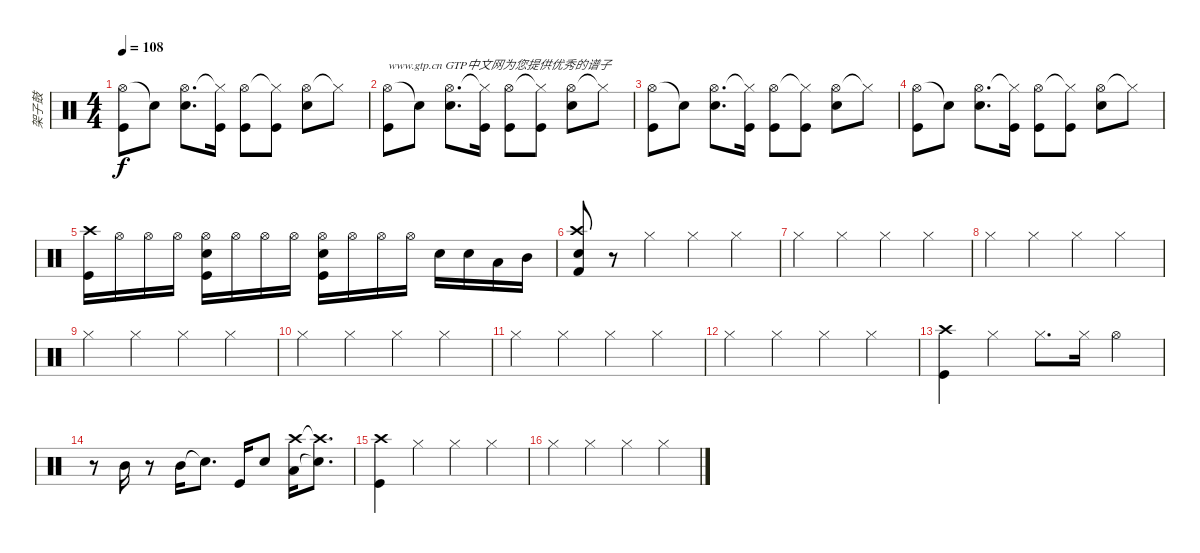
\track ("架子鼓" "架子鼓") {instrument percussion}
\staff {score}
\articulation defaults
\ts (4 4)
\tempo 108
\clef neutral
\ks c
("Hi-Hat (open)" "Kick (hit)").8{dy f} "Snare (hit)"{t}.8 ("Hi-Hat (open)" "Snare (hit) 2").8{d} ("Hi-Hat (closed)"{t} "Kick (hit)").16 ("Hi-Hat (open)" "Kick (hit)").8 ("Hi-Hat (closed)"{t} "Kick (hit)").8 ("Hi-Hat (open)" "Snare (hit) 2").8 "Hi-Hat (closed)"{t}.8 |
("Hi-Hat (open)" "Kick (hit)").8{txt "www.gtp.cn GTP中文网为您提供优秀的谱子"} "Snare (hit)"{t}.8 ("Hi-Hat (open)" "Snare (hit) 2").8{d} ("Hi-Hat (closed)"{t} "Kick (hit)").16 ("Hi-Hat (open)" "Kick (hit)").8 ("Hi-Hat (closed)"{t} "Kick (hit)").8 ("Hi-Hat (open)" "Snare (hit) 2").8 "Hi-Hat (closed)"{t}.8 |
("Hi-Hat (open)" "Kick (hit)").8 "Snare (hit)"{t}.8 ("Hi-Hat (open)" "Snare (hit) 2").8{d} ("Hi-Hat (closed)"{t} "Kick (hit)").16 ("Hi-Hat (open)" "Kick (hit)").8 ("Hi-Hat (closed)"{t} "Kick (hit)").8 ("Hi-Hat (open)" "Snare (hit) 2").8 "Hi-Hat (closed)"{t}.8 |
("Hi-Hat (open)" "Kick (hit)").8 "Snare (hit)"{t}.8 ("Hi-Hat (open)" "Snare (hit) 2").8{d} ("Hi-Hat (closed)"{t} "Kick (hit)").16 ("Hi-Hat (open)" "Kick (hit)").8 ("Hi-Hat (closed)"{t} "Kick (hit)").8 ("Hi-Hat (open)" "Snare (hit) 2").8 "Hi-Hat (closed)"{t}.8 |
("Crash high (hit)" "Kick (hit)").16 "Hi-Hat (open)".16 "Hi-Hat (open)".16 "Hi-Hat (open)".16 ("Hi-Hat (open)" "Snare (hit) 2" "Kick (hit)").16 "Hi-Hat (open)".16 "Hi-Hat (open)".16 "Hi-Hat (open)".16 ("Hi-Hat (open)" "Snare (hit) 2" "Kick (hit)").16 "Hi-Hat (open)".16 "Hi-Hat (open)".16 "Hi-Hat (open)".16 "Snare (hit) 2".16 "Snare (hit) 2".16 "Low Tom (hit)".16 "Mid Tom (hit)".16 |
("Crash high (hit)" "Snare (hit) 2" "Kick (hit) 2").8 r.8 "Hi-Hat (closed)".4 "Hi-Hat (closed)".4 "Hi-Hat (closed)".4 |
"Hi-Hat (closed)".4 "Hi-Hat (closed)".4 "Hi-Hat (closed)".4 "Hi-Hat (closed)".4 |
"Hi-Hat (closed)".4 "Hi-Hat (closed)".4 "Hi-Hat (closed)".4 "Hi-Hat (closed)".4 |
"Hi-Hat (closed)".4 "Hi-Hat (closed)".4 "Hi-Hat (closed)".4 "Hi-Hat (closed)".4 |
"Hi-Hat (closed)".4 "Hi-Hat (closed)".4 "Hi-Hat (closed)".4 "Hi-Hat (closed)".4 |
"Hi-Hat (closed)".4 "Hi-Hat (closed)".4 "Hi-Hat (closed)".4 "Hi-Hat (closed)".4 |
"Hi-Hat (closed)".4 "Hi-Hat (closed)".4 "Hi-Hat (closed)".4 "Hi-Hat (closed)".4 |
("Crash high (hit)" "Kick (hit)").4 "Hi-Hat (closed)".4 "Hi-Hat (closed)".8{d} "Hi-Hat (closed)".16 "Hi-Hat (open)".4 |
r.8 "Mid Tom (hit)".16 r.8 "Mid Tom (hit)".16 "Snare (hit)"{t}.8{d} "Kick (hit)".16 "Snare (hit) 2".8 ("Crash high (hit)" "Low Tom (hit)").16 ("Crash high (hit)"{t} "Snare (hit) 2"{t}).8{d} |
("Crash high (hit)" "Kick (hit)").4 "Hi-Hat (closed)".4 "Hi-Hat (closed)".4 "Hi-Hat (closed)".4 |
"Hi-Hat (closed)".4 "Hi-Hat (closed)".4 "Hi-Hat (closed)".4 "Hi-Hat (closed)".4
